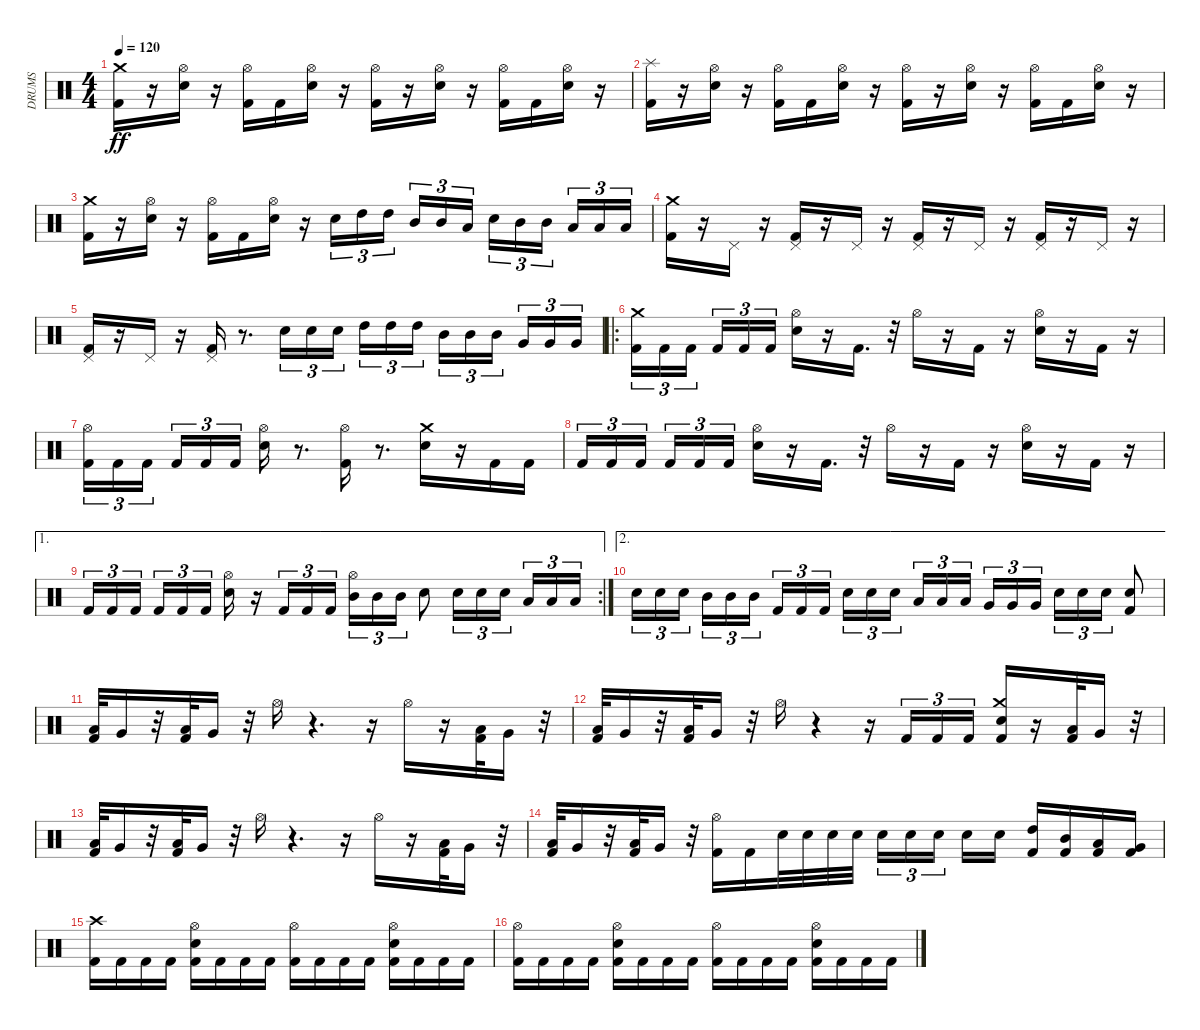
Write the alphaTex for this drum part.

\track ("DRUMS" "DRUMS") {instrument percussion}
\staff {score}
\articulation defaults
\ts (4 4)
\tempo 120
\clef neutral
\ks c
("Kick (hit) 2" "Crash medium (hit)").16{dy ff} r.16 ("Electric Snare (hit)" "Hi-Hat (open)").16 r.16 ("Kick (hit) 2" "Hi-Hat (open)").16 "Kick (hit) 2".16 ("Electric Snare (hit)" "Hi-Hat (open)").16 r.16 ("Kick (hit) 2" "Hi-Hat (open)").16 r.16 ("Electric Snare (hit)" "Hi-Hat (open)").16 r.16 ("Kick (hit) 2" "Hi-Hat (open)").16 "Kick (hit) 2".16 ("Electric Snare (hit)" "Hi-Hat (open)").16 r.16 |
("Kick (hit) 2" "Splash (hit)").16 r.16 ("Electric Snare (hit)" "Hi-Hat (open)").16 r.16 ("Kick (hit) 2" "Hi-Hat (open)").16 "Kick (hit) 2".16 ("Electric Snare (hit)" "Hi-Hat (open)").16 r.16 ("Kick (hit) 2" "Hi-Hat (open)").16 r.16 ("Electric Snare (hit)" "Hi-Hat (open)").16 r.16 ("Kick (hit) 2" "Hi-Hat (open)").16 "Kick (hit) 2".16 ("Electric Snare (hit)" "Hi-Hat (open)").16 r.16 |
("Kick (hit) 2" "Crash medium (hit)").16 r.16 ("Electric Snare (hit)" "Hi-Hat (open)").16 r.16 ("Kick (hit) 2" "Hi-Hat (open)").16 "Kick (hit) 2".16 ("Electric Snare (hit)" "Hi-Hat (open)").16 r.16 "Electric Snare (hit)".16{tu (3 2)} "High Tom (hit)".16{tu (3 2)} "High Tom (hit)".16{tu (3 2) beam splitsecondary} "Mid Tom (hit)".16{tu (3 2)} "Mid Tom (hit)".16{tu (3 2)} "Low Floor Tom (hit)".16{tu (3 2)} "Electric Snare (hit)".16{tu (3 2)} "Mid Tom (hit)".16{tu (3 2)} "Mid Tom (hit)".16{tu (3 2) beam splitsecondary} "Low Floor Tom (hit)".16{tu (3 2)} "Low Floor Tom (hit)".16{tu (3 2)} "Low Floor Tom (hit)".16{tu (3 2)} |
("Kick (hit) 2" "Crash medium (hit)").16 r.16 "Pedal Hi-Hat (hit)".16 r.16 ("Pedal Hi-Hat (hit)" "Kick (hit) 2").16 r.16 "Pedal Hi-Hat (hit)".16 r.16 ("Pedal Hi-Hat (hit)" "Kick (hit) 2").16 r.16 "Pedal Hi-Hat (hit)".16 r.16 ("Pedal Hi-Hat (hit)" "Kick (hit) 2").16 r.16 "Pedal Hi-Hat (hit)".16 r.16 |
("Pedal Hi-Hat (hit)" "Kick (hit) 2").16 r.16 "Pedal Hi-Hat (hit)".16 r.16 ("Pedal Hi-Hat (hit)" "Kick (hit) 2").16 r.8{d} "Electric Snare (hit)".16{tu (3 2)} "Electric Snare (hit)".16{tu (3 2)} "Electric Snare (hit)".16{tu (3 2) beam splitsecondary} "High Tom (hit)".16{tu (3 2)} "High Tom (hit)".16{tu (3 2)} "High Tom (hit)".16{tu (3 2)} "Mid Tom (hit)".16{tu (3 2)} "Mid Tom (hit)".16{tu (3 2)} "Mid Tom (hit)".16{tu (3 2) beam splitsecondary} "Very Low Tom (hit)".16{tu (3 2)} "Very Low Tom (hit)".16{tu (3 2)} "Very Low Tom (hit)".16{tu (3 2)} |
\ro
("Kick (hit) 2" "Crash medium (hit)").16{tu (3 2)} "Kick (hit) 2".16{tu (3 2)} "Kick (hit) 2".16{tu (3 2) beam splitsecondary} "Kick (hit) 2".16{tu (3 2)} "Kick (hit) 2".16{tu (3 2)} "Kick (hit) 2".16{tu (3 2)} ("Electric Snare (hit)" "Hi-Hat (open)").16 r.16 "Kick (hit) 2".16{d} r.32 "Hi-Hat (open)".16 r.16 "Kick (hit) 2".16 r.16 ("Electric Snare (hit)" "Hi-Hat (open)").16 r.16 "Kick (hit) 2".16 r.16 |
("Kick (hit) 2" "Hi-Hat (open)").16{tu (3 2)} "Kick (hit) 2".16{tu (3 2)} "Kick (hit) 2".16{tu (3 2) beam splitsecondary} "Kick (hit) 2".16{tu (3 2)} "Kick (hit) 2".16{tu (3 2)} "Kick (hit) 2".16{tu (3 2)} ("Electric Snare (hit)" "Hi-Hat (open)").16 r.8{d} ("Kick (hit) 2" "Hi-Hat (open)").16 r.8{d} ("Electric Snare (hit)" "Crash medium (hit)").16 r.16 "Kick (hit) 2".16 "Kick (hit) 2".16 |
"Kick (hit) 2".16{tu (3 2)} "Kick (hit) 2".16{tu (3 2)} "Kick (hit) 2".16{tu (3 2) beam splitsecondary} "Kick (hit) 2".16{tu (3 2)} "Kick (hit) 2".16{tu (3 2)} "Kick (hit) 2".16{tu (3 2)} ("Electric Snare (hit)" "Hi-Hat (open)").16 r.16 "Kick (hit) 2".16{d} r.32 "Hi-Hat (open)".16 r.16 "Kick (hit) 2".16 r.16 ("Electric Snare (hit)" "Hi-Hat (open)").16 r.16 "Kick (hit) 2".16 r.16 |
\ae 1
\rc 2 "Kick (hit) 2".16{tu (3 2)} "Kick (hit) 2".16{tu (3 2)} "Kick (hit) 2".16{tu (3 2) beam splitsecondary} "Kick (hit) 2".16{tu (3 2)} "Kick (hit) 2".16{tu (3 2)} "Kick (hit) 2".16{tu (3 2)}
("Electric Snare (hit)" "Hi-Hat (open)").16 r.16 "Kick (hit) 2".16{tu (3 2)} "Kick (hit) 2".16{tu (3 2)} "Kick (hit) 2".16{tu (3 2)} ("Mid Tom (hit)" "Hi-Hat (open)").16{tu (3 2)} "Mid Tom (hit)".16{tu (3 2)} "Mid Tom (hit)".16{tu (3 2)} "Electric Snare (hit)".8 "Electric Snare (hit)".16{tu (3 2)} "Electric Snare (hit)".16{tu (3 2)} "Electric Snare (hit)".16{tu (3 2) beam splitsecondary} "Low Tom (hit)".16{tu (3 2)} "Low Tom (hit)".16{tu (3 2)} "Low Tom (hit)".16{tu (3 2)} |
\ae 2 "Electric Snare (hit)".16{tu (3 2)} "Electric Snare (hit)".16{tu (3 2)} "Electric Snare (hit)".16{tu (3 2) beam splitsecondary} "Mid Tom (hit)".16{tu (3 2)} "Mid Tom (hit)".16{tu (3 2)} "Mid Tom (hit)".16{tu (3 2)} "Kick (hit) 2".16{tu (3 2)} "Kick (hit) 2".16{tu (3 2)} "Kick (hit) 2".16{tu (3 2) beam splitsecondary} "Electric Snare (hit)".16{tu (3 2)} "Electric Snare (hit)".16{tu (3 2)} "Electric Snare (hit)".16{tu (3 2)} "Low Tom (hit)".16{tu (3 2)} "Low Tom (hit)".16{tu (3 2)} "Low Tom (hit)".16{tu (3 2) beam splitsecondary} "Very Low Tom (hit)".16{tu (3 2)} "Very Low Tom (hit)".16{tu (3 2)} "Very Low Tom (hit)".16{tu (3 2)} "Electric Snare (hit)".16{tu (3 2)} "Electric Snare (hit)".16{tu (3 2)} "Electric Snare (hit)".16{tu (3 2)}
("Kick (hit) 2" "Electric Snare (hit)").8 |
("Kick (hit) 2" "Low Floor Tom (hit)").32 "Very Low Tom (hit)".16 r.32 ("Kick (hit) 2" "Low Floor Tom (hit)").32 "Very Low Tom (hit)".16 r.32 "Hi-Hat (open)".16 r.4{d} r.16 "Hi-Hat (open)".16 r.16 ("Kick (hit) 2" "Low Floor Tom (hit)").32 "Very Low Tom (hit)".16 r.32 |
("Kick (hit) 2" "Low Floor Tom (hit)").32 "Very Low Tom (hit)".16 r.32 ("Kick (hit) 2" "Low Floor Tom (hit)").32 "Very Low Tom (hit)".16 r.32 "Hi-Hat (open)".16 r.4 r.16 "Kick (hit) 2".16{tu (3 2)} "Kick (hit) 2".16{tu (3 2)} "Kick (hit) 2".16{tu (3 2)} ("Kick (hit) 2" "Electric Snare (hit)" "Crash medium (hit)").16 r.16 ("Kick (hit) 2" "Low Floor Tom (hit)").32 "Very Low Tom (hit)".16 r.32 |
("Kick (hit) 2" "Low Floor Tom (hit)").32 "Very Low Tom (hit)".16 r.32 ("Kick (hit) 2" "Low Floor Tom (hit)").32 "Very Low Tom (hit)".16 r.32 "Hi-Hat (open)".16 r.4{d} r.16 "Hi-Hat (open)".16 r.16 ("Kick (hit) 2" "Low Floor Tom (hit)").32 "Very Low Tom (hit)".16 r.32 |
("Kick (hit) 2" "Low Floor Tom (hit)").32 "Very Low Tom (hit)".16 r.32 ("Kick (hit) 2" "Low Floor Tom (hit)").32 "Very Low Tom (hit)".16 r.32 ("Kick (hit) 2" "Hi-Hat (open)").16 "Kick (hit) 2".16 "Electric Snare (hit)".32 "Electric Snare (hit)".32 "Electric Snare (hit)".32 "Electric Snare (hit)".32 "Electric Snare (hit)".16{tu (3 2)} "Electric Snare (hit)".16{tu (3 2)} "Electric Snare (hit)".16{tu (3 2) beam splitsecondary} "Electric Snare (hit)".16 "Electric Snare (hit)".16 ("Kick (hit) 2" "High Tom (hit)").16 ("Kick (hit) 2" "Mid Tom (hit)").16 ("Kick (hit) 2" "Low Tom (hit)").16 ("Kick (hit) 2" "Very Low Tom (hit)").16 |
("Kick (hit) 2" "Crash high (hit)").16 "Kick (hit) 2".16 "Kick (hit) 2".16 "Kick (hit) 2".16 ("Kick (hit) 2" "Electric Snare (hit)" "Hi-Hat (open)").16 "Kick (hit) 2".16 "Kick (hit) 2".16 "Kick (hit) 2".16 ("Kick (hit) 2" "Hi-Hat (open)").16 "Kick (hit) 2".16 "Kick (hit) 2".16 "Kick (hit) 2".16 ("Kick (hit) 2" "Electric Snare (hit)" "Hi-Hat (open)").16 "Kick (hit) 2".16 "Kick (hit) 2".16 "Kick (hit) 2".16 |
("Kick (hit) 2" "Hi-Hat (open)").16 "Kick (hit) 2".16 "Kick (hit) 2".16 "Kick (hit) 2".16 ("Kick (hit) 2" "Electric Snare (hit)" "Hi-Hat (open)").16 "Kick (hit) 2".16 "Kick (hit) 2".16 "Kick (hit) 2".16 ("Kick (hit) 2" "Hi-Hat (open)").16 "Kick (hit) 2".16 "Kick (hit) 2".16 "Kick (hit) 2".16 ("Kick (hit) 2" "Electric Snare (hit)" "Hi-Hat (open)").16 "Kick (hit) 2".16 "Kick (hit) 2".16 "Kick (hit) 2".16
